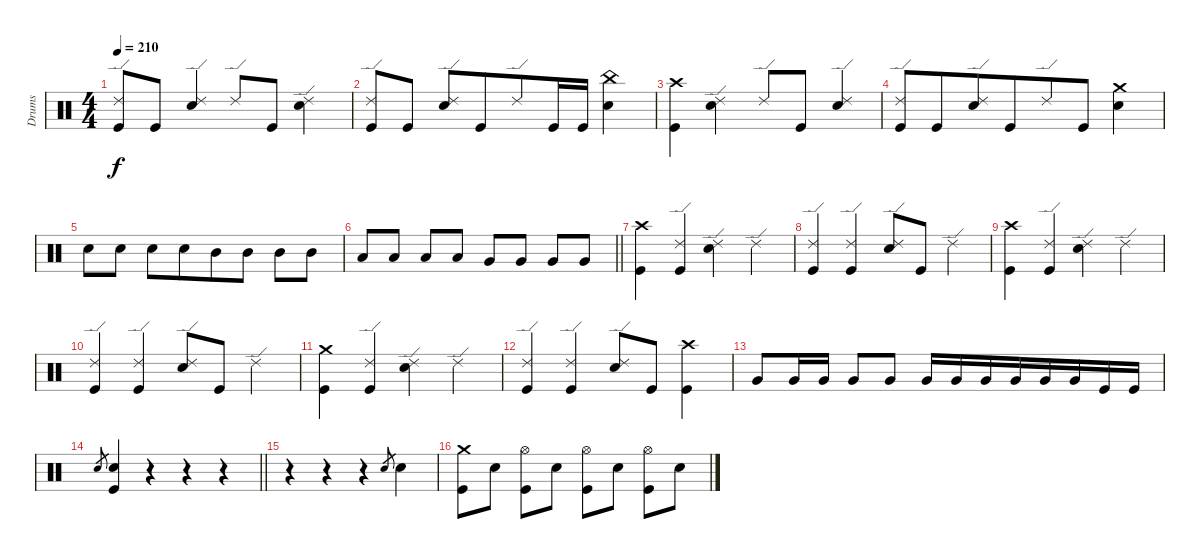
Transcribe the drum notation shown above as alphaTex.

\track ("Drums" "Drums") {instrument percussion}
\staff {score}
\articulation defaults
\ts (4 4)
\tempo 210
\clef neutral
\ks c
("Ride (edge) 2" "Kick (hit)").8{dy f} "Kick (hit)".8 ("Ride (edge) 2" "Electric Snare (hit)").4{beam merge} "Ride (edge) 2".8 "Kick (hit)".8 ("Ride (edge) 2" "Electric Snare (hit)").4 |
("Ride (edge) 2" "Kick (hit)").8 "Kick (hit)".8 ("Ride (edge) 2" "Electric Snare (hit)").8 "Kick (hit)".8{beam merge} "Ride (edge) 2".8 "Kick (hit)".16 "Kick (hit)".16 ("China (hit)" "Electric Snare (hit)").4 |
("Crash high (hit)" "Kick (hit)").4 ("Ride (edge) 2" "Electric Snare (hit)").4 "Ride (edge) 2".8 "Kick (hit)".8{beam merge} ("Ride (edge) 2" "Electric Snare (hit)").4 |
("Ride (edge) 2" "Kick (hit)").8 "Kick (hit)".8{beam merge} ("Ride (edge) 2" "Electric Snare (hit)").8{beam merge} "Kick (hit)".8{beam merge} "Ride (edge) 2".8 "Kick (hit)".8 ("Crash medium (hit)" "Electric Snare (hit)").4 |
"Electric Snare (hit)".8{beam merge} "Electric Snare (hit)".8 "Electric Snare (hit)".8 "Electric Snare (hit)".8{beam merge} "Mid Tom (hit)".8 "Mid Tom (hit)".8 "Mid Tom (hit)".8 "Mid Tom (hit)".8 |
\barLineRight lightlight "Low Tom (hit)".8 "Low Tom (hit)".8 "Low Tom (hit)".8 "Low Tom (hit)".8 "Very Low Tom (hit)".8{beam merge} "Very Low Tom (hit)".8 "Very Low Tom (hit)".8 "Very Low Tom (hit)".8
|
("Crash high (hit)" "Kick (hit)").4 ("Ride (edge) 2" "Kick (hit)").4 ("Ride (edge) 2" "Electric Snare (hit)").4{beam merge} "Ride (edge) 2".4 |
("Ride (edge) 2" "Kick (hit)").4 ("Ride (edge) 2" "Kick (hit)").4 ("Ride (edge) 2" "Electric Snare (hit)").8 "Kick (hit)".8 "Ride (edge) 2".4 |
("Crash high (hit)" "Kick (hit)").4 ("Ride (edge) 2" "Kick (hit)").4 ("Ride (edge) 2" "Electric Snare (hit)").4{beam merge} "Ride (edge) 2".4 |
("Ride (edge) 2" "Kick (hit)").4 ("Ride (edge) 2" "Kick (hit)").4 ("Ride (edge) 2" "Electric Snare (hit)").8 "Kick (hit)".8 "Ride (edge) 2".4 |
("Crash medium (hit)" "Kick (hit)").4 ("Ride (edge) 2" "Kick (hit)").4 ("Ride (edge) 2" "Electric Snare (hit)").4{beam merge} "Ride (edge) 2".4 |
("Ride (edge) 2" "Kick (hit)").4 ("Ride (edge) 2" "Kick (hit)").4 ("Ride (edge) 2" "Electric Snare (hit)").8 "Kick (hit)".8 ("Crash high (hit)" "Kick (hit)").4 |
"Very Low Tom (hit)".8 "Very Low Tom (hit)".16 "Very Low Tom (hit)".16 "Very Low Tom (hit)".8 "Very Low Tom (hit)".8 "Very Low Tom (hit)".16 "Very Low Tom (hit)".16 "Very Low Tom (hit)".16 "Very Low Tom (hit)".16{beam merge} "Very Low Tom (hit)".16{beam merge} "Very Low Tom (hit)".16 "Kick (hit)".16{beam merge} "Kick (hit)".16 |
\barLineRight lightlight "Snare (hit)".8{gr}
("Electric Snare (hit)" "Kick (hit)").4 r.4 r.4 r.4 |
r.4 r.4{beam merge} r.4 "Snare (hit)".8{gr} "Electric Snare (hit)".4 |
("Crash medium (hit)" "Kick (hit)").8 "Electric Snare (hit)".8 ("Hi-Hat (open)" "Kick (hit)").8 "Electric Snare (hit)".8 ("Hi-Hat (open)" "Kick (hit)").8 "Electric Snare (hit)".8 ("Hi-Hat (open)" "Kick (hit)").8 "Electric Snare (hit)".8
